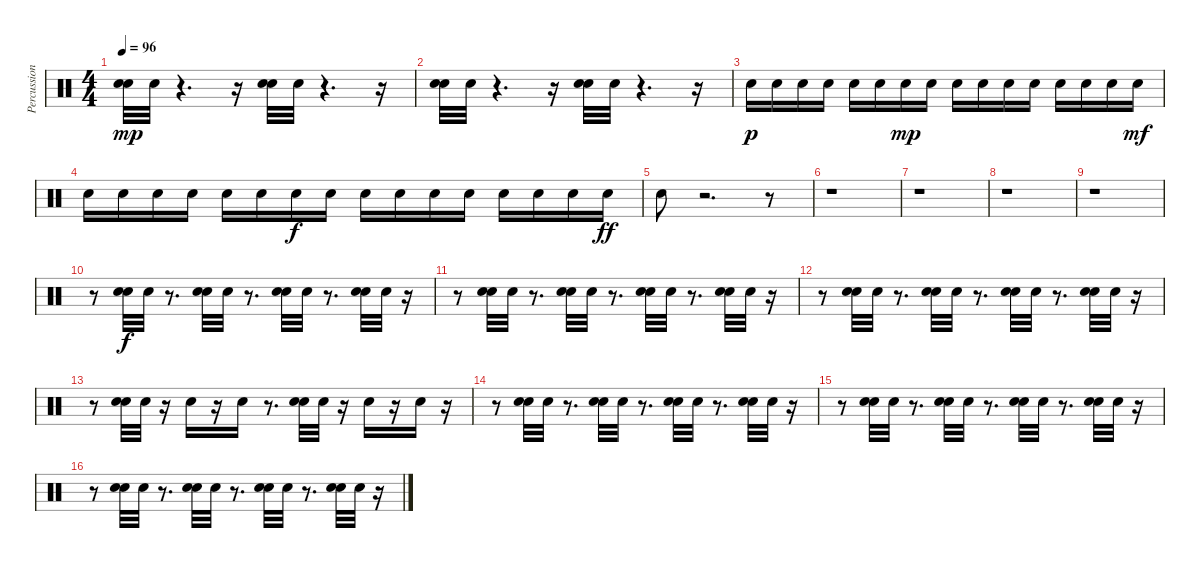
\track ("Percussion" "Percussion") {instrument percussion}
\staff {score}
\articulation defaults
\ts (4 4)
\tempo 96
\clef neutral
\ks c
("Snare (hit) 2" "Snare (hit) 2").32{dy mp} "Snare (hit) 2".32 r.4{d} r.16 ("Snare (hit) 2" "Snare (hit) 2").32 "Snare (hit) 2".32 r.4{d} r.16 |
("Snare (hit) 2" "Snare (hit) 2").32 "Snare (hit) 2".32 r.4{d} r.16 ("Snare (hit) 2" "Snare (hit) 2").32 "Snare (hit) 2".32 r.4{d} r.16 |
"Snare (hit) 2".16{dy p} "Snare (hit) 2".16 "Snare (hit) 2".16 "Snare (hit) 2".16 "Snare (hit) 2".16 "Snare (hit) 2".16 "Snare (hit) 2".16{dy mp} "Snare (hit) 2".16 "Snare (hit) 2".16 "Snare (hit) 2".16 "Snare (hit) 2".16 "Snare (hit) 2".16 "Snare (hit) 2".16 "Snare (hit) 2".16 "Snare (hit) 2".16 "Snare (hit) 2".16{dy mf} |
"Snare (hit) 2".16 "Snare (hit) 2".16 "Snare (hit) 2".16 "Snare (hit) 2".16 "Snare (hit) 2".16 "Snare (hit) 2".16 "Snare (hit) 2".16{dy f} "Snare (hit) 2".16 "Snare (hit) 2".16 "Snare (hit) 2".16 "Snare (hit) 2".16 "Snare (hit) 2".16 "Snare (hit) 2".16 "Snare (hit) 2".16 "Snare (hit) 2".16 "Snare (hit) 2".16{dy ff} |
"Snare (hit) 2".8 r.2{d} r.8 |
r.1 |
r.1 |
r.1 |
r.1 |
r.8 ("Snare (hit) 2" "Snare (hit) 2").32{dy f} "Snare (hit) 2".32 r.8{d} ("Snare (hit) 2" "Snare (hit) 2").32 "Snare (hit) 2".32 r.8{d} ("Snare (hit) 2" "Snare (hit) 2").32 "Snare (hit) 2".32 r.8{d} ("Snare (hit) 2" "Snare (hit) 2").32 "Snare (hit) 2".32 r.16 |
r.8 ("Snare (hit) 2" "Snare (hit) 2").32 "Snare (hit) 2".32 r.8{d} ("Snare (hit) 2" "Snare (hit) 2").32 "Snare (hit) 2".32 r.8{d} ("Snare (hit) 2" "Snare (hit) 2").32 "Snare (hit) 2".32 r.8{d} ("Snare (hit) 2" "Snare (hit) 2").32 "Snare (hit) 2".32 r.16 |
r.8 ("Snare (hit) 2" "Snare (hit) 2").32 "Snare (hit) 2".32 r.8{d} ("Snare (hit) 2" "Snare (hit) 2").32 "Snare (hit) 2".32 r.8{d} ("Snare (hit) 2" "Snare (hit) 2").32 "Snare (hit) 2".32 r.8{d} ("Snare (hit) 2" "Snare (hit) 2").32 "Snare (hit) 2".32 r.16 |
r.8 ("Snare (hit) 2" "Snare (hit) 2").32 "Snare (hit) 2".32 r.16 "Snare (hit) 2".16 r.16 "Snare (hit) 2".16 r.8{d} ("Snare (hit) 2" "Snare (hit) 2").32 "Snare (hit) 2".32 r.16 "Snare (hit) 2".16 r.16 "Snare (hit) 2".16 r.16 |
r.8 ("Snare (hit) 2" "Snare (hit) 2").32 "Snare (hit) 2".32 r.8{d} ("Snare (hit) 2" "Snare (hit) 2").32 "Snare (hit) 2".32 r.8{d} ("Snare (hit) 2" "Snare (hit) 2").32 "Snare (hit) 2".32 r.8{d} ("Snare (hit) 2" "Snare (hit) 2").32 "Snare (hit) 2".32 r.16 |
r.8 ("Snare (hit) 2" "Snare (hit) 2").32 "Snare (hit) 2".32 r.8{d} ("Snare (hit) 2" "Snare (hit) 2").32 "Snare (hit) 2".32 r.8{d} ("Snare (hit) 2" "Snare (hit) 2").32 "Snare (hit) 2".32 r.8{d} ("Snare (hit) 2" "Snare (hit) 2").32 "Snare (hit) 2".32 r.16 |
r.8 ("Snare (hit) 2" "Snare (hit) 2").32 "Snare (hit) 2".32 r.8{d} ("Snare (hit) 2" "Snare (hit) 2").32 "Snare (hit) 2".32 r.8{d} ("Snare (hit) 2" "Snare (hit) 2").32 "Snare (hit) 2".32 r.8{d} ("Snare (hit) 2" "Snare (hit) 2").32 "Snare (hit) 2".32 r.16
